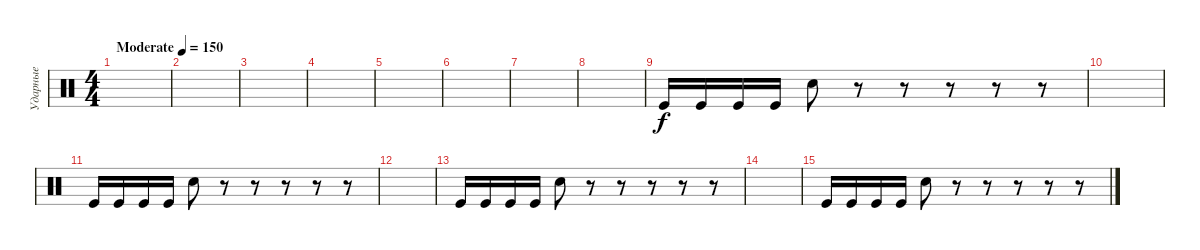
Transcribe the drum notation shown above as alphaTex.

\track ("Ударные" "Ударные") {instrument percussion}
\staff {score}
\articulation defaults
\ts (4 4)
\tempo (150 "Moderate")
\clef neutral
\ks c
|
|
|
|
|
|
|
|
"Kick (hit)".16 "Kick (hit)".16 "Kick (hit)".16 "Kick (hit)".16 "Snare (hit) 2".8 r.8 r.8 r.8 r.8 r.8 |
|
"Kick (hit)".16 "Kick (hit)".16 "Kick (hit)".16 "Kick (hit)".16 "Snare (hit) 2".8 r.8 r.8 r.8 r.8 r.8 |
|
"Kick (hit)".16 "Kick (hit)".16 "Kick (hit)".16 "Kick (hit)".16 "Snare (hit) 2".8 r.8 r.8 r.8 r.8 r.8 |
|
"Kick (hit)".16 "Kick (hit)".16 "Kick (hit)".16 "Kick (hit)".16 "Snare (hit) 2".8 r.8 r.8 r.8 r.8 r.8
